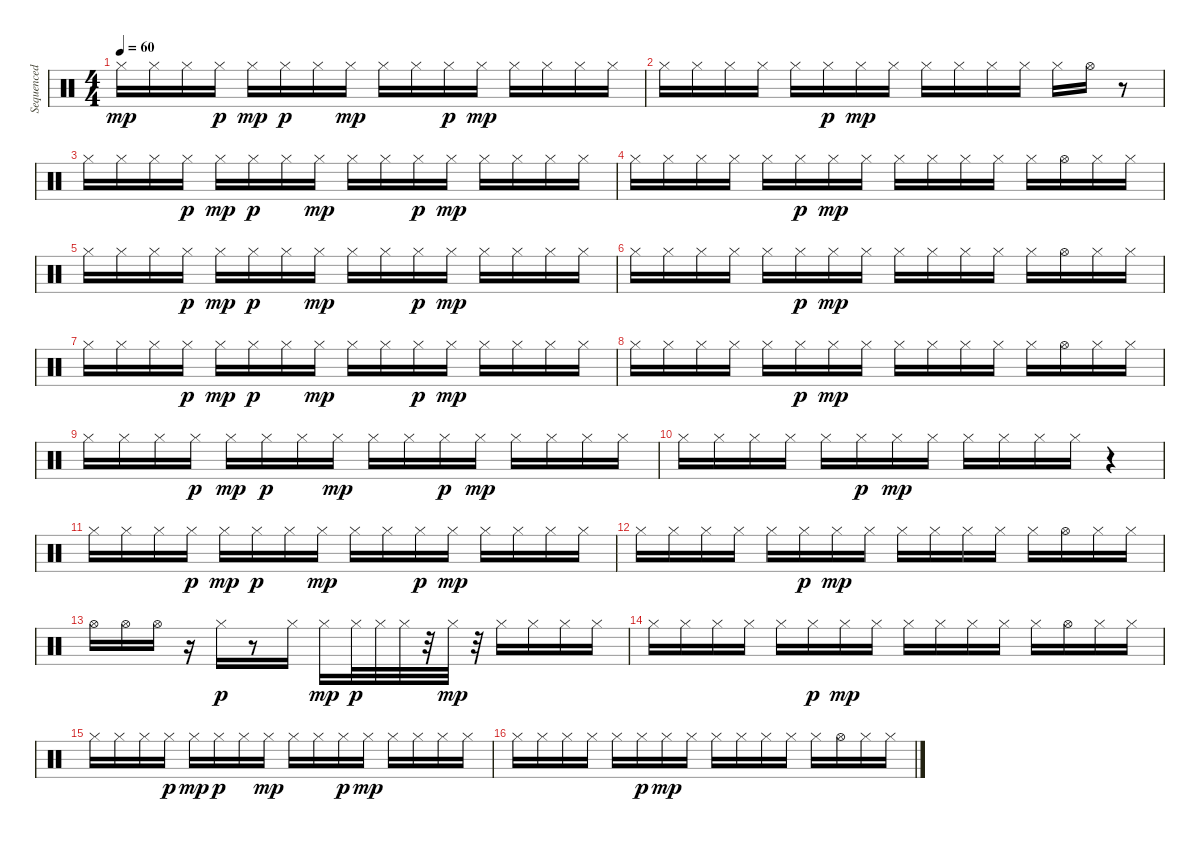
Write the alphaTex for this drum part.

\track ("Sequenced by Ade" "Sequenced ") {instrument percussion}
\staff {score}
\articulation defaults
\ts (4 4)
\tempo 60
\clef neutral
\ks c "Hi-Hat (closed)".16{dy mp} "Hi-Hat (closed)".16 "Hi-Hat (closed)".16 "Hi-Hat (closed)".16{dy p} "Hi-Hat (closed)".16{dy mp} "Hi-Hat (closed)".16{dy p} "Hi-Hat (closed)".16 "Hi-Hat (closed)".16{dy mp} "Hi-Hat (closed)".16 "Hi-Hat (closed)".16 "Hi-Hat (closed)".16{dy p} "Hi-Hat (closed)".16{dy mp} "Hi-Hat (closed)".16 "Hi-Hat (closed)".16 "Hi-Hat (closed)".16 "Hi-Hat (closed)".16
|
"Hi-Hat (closed)".16 "Hi-Hat (closed)".16 "Hi-Hat (closed)".16 "Hi-Hat (closed)".16 "Hi-Hat (closed)".16 "Hi-Hat (closed)".16{dy p} "Hi-Hat (closed)".16{dy mp} "Hi-Hat (closed)".16 "Hi-Hat (closed)".16 "Hi-Hat (closed)".16 "Hi-Hat (closed)".16 "Hi-Hat (closed)".16 "Hi-Hat (closed)".16 "Hi-Hat (open)".16 r.8 |
"Hi-Hat (closed)".16 "Hi-Hat (closed)".16 "Hi-Hat (closed)".16 "Hi-Hat (closed)".16{dy p} "Hi-Hat (closed)".16{dy mp} "Hi-Hat (closed)".16{dy p} "Hi-Hat (closed)".16 "Hi-Hat (closed)".16{dy mp} "Hi-Hat (closed)".16 "Hi-Hat (closed)".16 "Hi-Hat (closed)".16{dy p} "Hi-Hat (closed)".16{dy mp} "Hi-Hat (closed)".16 "Hi-Hat (closed)".16 "Hi-Hat (closed)".16 "Hi-Hat (closed)".16 |
"Hi-Hat (closed)".16 "Hi-Hat (closed)".16 "Hi-Hat (closed)".16 "Hi-Hat (closed)".16 "Hi-Hat (closed)".16 "Hi-Hat (closed)".16{dy p} "Hi-Hat (closed)".16{dy mp} "Hi-Hat (closed)".16 "Hi-Hat (closed)".16 "Hi-Hat (closed)".16 "Hi-Hat (closed)".16 "Hi-Hat (closed)".16 "Hi-Hat (closed)".16 "Hi-Hat (open)".16 "Hi-Hat (closed)".16 "Hi-Hat (closed)".16 |
"Hi-Hat (closed)".16 "Hi-Hat (closed)".16 "Hi-Hat (closed)".16 "Hi-Hat (closed)".16{dy p} "Hi-Hat (closed)".16{dy mp} "Hi-Hat (closed)".16{dy p} "Hi-Hat (closed)".16 "Hi-Hat (closed)".16{dy mp} "Hi-Hat (closed)".16 "Hi-Hat (closed)".16 "Hi-Hat (closed)".16{dy p} "Hi-Hat (closed)".16{dy mp} "Hi-Hat (closed)".16 "Hi-Hat (closed)".16 "Hi-Hat (closed)".16 "Hi-Hat (closed)".16 |
"Hi-Hat (closed)".16 "Hi-Hat (closed)".16 "Hi-Hat (closed)".16 "Hi-Hat (closed)".16 "Hi-Hat (closed)".16 "Hi-Hat (closed)".16{dy p} "Hi-Hat (closed)".16{dy mp} "Hi-Hat (closed)".16 "Hi-Hat (closed)".16 "Hi-Hat (closed)".16 "Hi-Hat (closed)".16 "Hi-Hat (closed)".16 "Hi-Hat (closed)".16 "Hi-Hat (open)".16 "Hi-Hat (closed)".16 "Hi-Hat (closed)".16 |
"Hi-Hat (closed)".16 "Hi-Hat (closed)".16 "Hi-Hat (closed)".16 "Hi-Hat (closed)".16{dy p} "Hi-Hat (closed)".16{dy mp} "Hi-Hat (closed)".16{dy p} "Hi-Hat (closed)".16 "Hi-Hat (closed)".16{dy mp} "Hi-Hat (closed)".16 "Hi-Hat (closed)".16 "Hi-Hat (closed)".16{dy p} "Hi-Hat (closed)".16{dy mp} "Hi-Hat (closed)".16 "Hi-Hat (closed)".16 "Hi-Hat (closed)".16 "Hi-Hat (closed)".16 |
"Hi-Hat (closed)".16 "Hi-Hat (closed)".16 "Hi-Hat (closed)".16 "Hi-Hat (closed)".16 "Hi-Hat (closed)".16 "Hi-Hat (closed)".16{dy p} "Hi-Hat (closed)".16{dy mp} "Hi-Hat (closed)".16 "Hi-Hat (closed)".16 "Hi-Hat (closed)".16 "Hi-Hat (closed)".16 "Hi-Hat (closed)".16 "Hi-Hat (closed)".16 "Hi-Hat (open)".16 "Hi-Hat (closed)".16 "Hi-Hat (closed)".16 |
"Hi-Hat (closed)".16 "Hi-Hat (closed)".16 "Hi-Hat (closed)".16 "Hi-Hat (closed)".16{dy p} "Hi-Hat (closed)".16{dy mp} "Hi-Hat (closed)".16{dy p} "Hi-Hat (closed)".16 "Hi-Hat (closed)".16{dy mp} "Hi-Hat (closed)".16 "Hi-Hat (closed)".16 "Hi-Hat (closed)".16{dy p} "Hi-Hat (closed)".16{dy mp} "Hi-Hat (closed)".16 "Hi-Hat (closed)".16 "Hi-Hat (closed)".16 "Hi-Hat (closed)".16 |
"Hi-Hat (closed)".16 "Hi-Hat (closed)".16 "Hi-Hat (closed)".16 "Hi-Hat (closed)".16 "Hi-Hat (closed)".16 "Hi-Hat (closed)".16{dy p} "Hi-Hat (closed)".16{dy mp} "Hi-Hat (closed)".16 "Hi-Hat (closed)".16 "Hi-Hat (closed)".16 "Hi-Hat (closed)".16 "Hi-Hat (closed)".16 r.4 |
"Hi-Hat (closed)".16 "Hi-Hat (closed)".16 "Hi-Hat (closed)".16 "Hi-Hat (closed)".16{dy p} "Hi-Hat (closed)".16{dy mp} "Hi-Hat (closed)".16{dy p} "Hi-Hat (closed)".16 "Hi-Hat (closed)".16{dy mp} "Hi-Hat (closed)".16 "Hi-Hat (closed)".16 "Hi-Hat (closed)".16{dy p} "Hi-Hat (closed)".16{dy mp} "Hi-Hat (closed)".16 "Hi-Hat (closed)".16 "Hi-Hat (closed)".16 "Hi-Hat (closed)".16 |
"Hi-Hat (closed)".16 "Hi-Hat (closed)".16 "Hi-Hat (closed)".16 "Hi-Hat (closed)".16 "Hi-Hat (closed)".16 "Hi-Hat (closed)".16{dy p} "Hi-Hat (closed)".16{dy mp} "Hi-Hat (closed)".16 "Hi-Hat (closed)".16 "Hi-Hat (closed)".16 "Hi-Hat (closed)".16 "Hi-Hat (closed)".16 "Hi-Hat (closed)".16 "Hi-Hat (open)".16 "Hi-Hat (closed)".16 "Hi-Hat (closed)".16 |
"Hi-Hat (open)".16 "Hi-Hat (open)".16 "Hi-Hat (open)".16 r.16 "Hi-Hat (closed)".16{dy p} r.8 "Hi-Hat (closed)".16 "Hi-Hat (closed)".16{dy mp} "Hi-Hat (closed)".32{dy p} "Hi-Hat (closed)".32 "Hi-Hat (closed)".32 r.32 "Hi-Hat (closed)".32{dy mp} r.32 "Hi-Hat (closed)".16 "Hi-Hat (closed)".16 "Hi-Hat (closed)".16 "Hi-Hat (closed)".16 |
"Hi-Hat (closed)".16 "Hi-Hat (closed)".16 "Hi-Hat (closed)".16 "Hi-Hat (closed)".16 "Hi-Hat (closed)".16 "Hi-Hat (closed)".16{dy p} "Hi-Hat (closed)".16{dy mp} "Hi-Hat (closed)".16 "Hi-Hat (closed)".16 "Hi-Hat (closed)".16 "Hi-Hat (closed)".16 "Hi-Hat (closed)".16 "Hi-Hat (closed)".16 "Hi-Hat (open)".16 "Hi-Hat (closed)".16 "Hi-Hat (closed)".16 |
"Hi-Hat (closed)".16 "Hi-Hat (closed)".16 "Hi-Hat (closed)".16 "Hi-Hat (closed)".16{dy p} "Hi-Hat (closed)".16{dy mp} "Hi-Hat (closed)".16{dy p} "Hi-Hat (closed)".16 "Hi-Hat (closed)".16{dy mp} "Hi-Hat (closed)".16 "Hi-Hat (closed)".16 "Hi-Hat (closed)".16{dy p} "Hi-Hat (closed)".16{dy mp} "Hi-Hat (closed)".16 "Hi-Hat (closed)".16 "Hi-Hat (closed)".16 "Hi-Hat (closed)".16 |
"Hi-Hat (closed)".16 "Hi-Hat (closed)".16 "Hi-Hat (closed)".16 "Hi-Hat (closed)".16 "Hi-Hat (closed)".16 "Hi-Hat (closed)".16{dy p} "Hi-Hat (closed)".16{dy mp} "Hi-Hat (closed)".16 "Hi-Hat (closed)".16 "Hi-Hat (closed)".16 "Hi-Hat (closed)".16 "Hi-Hat (closed)".16 "Hi-Hat (closed)".16 "Hi-Hat (open)".16 "Hi-Hat (closed)".16 "Hi-Hat (closed)".16
